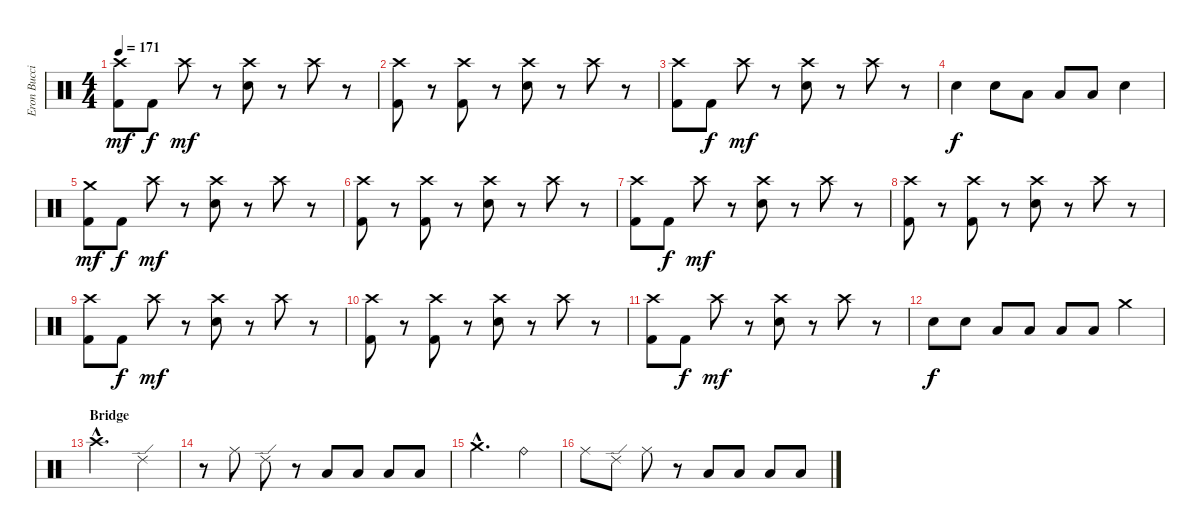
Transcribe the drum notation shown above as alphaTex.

\track ("Eron Bucciarelli (Drums)" "Eron Bucci") {instrument percussion}
\staff {score}
\articulation defaults
\ts (4 4)
\tempo 171
\clef neutral
\ks c
("Crash high (hit)" "Kick (hit) 2").8{dy mf} "Kick (hit) 2".8{dy f} "Crash high (hit)".8{dy mf} r.8 ("Crash high (hit)" "Snare (hit) 2").8 r.8 "Crash high (hit)".8 r.8 |
("Crash high (hit)" "Kick (hit) 2").8 r.8 ("Crash high (hit)" "Kick (hit) 2").8 r.8 ("Crash high (hit)" "Snare (hit) 2").8 r.8 "Crash high (hit)".8 r.8 |
("Crash high (hit)" "Kick (hit) 2").8 "Kick (hit) 2".8{dy f} "Crash high (hit)".8{dy mf} r.8 ("Crash high (hit)" "Snare (hit) 2").8 r.8 "Crash high (hit)".8 r.8 |
"Snare (hit) 2".4{dy f} "Snare (hit) 2".8 "Low Tom (hit)".8 "Low Tom (hit)".8 "Low Floor Tom (hit)".8 "Snare (hit) 2".4 |
("Crash medium (hit)" "Kick (hit) 2").8{dy mf} "Kick (hit) 2".8{dy f} "Crash high (hit)".8{dy mf} r.8 ("Crash high (hit)" "Snare (hit) 2").8 r.8 "Crash high (hit)".8 r.8 |
("Crash high (hit)" "Kick (hit) 2").8 r.8 ("Crash high (hit)" "Kick (hit) 2").8 r.8 ("Crash high (hit)" "Snare (hit) 2").8 r.8 "Crash high (hit)".8 r.8 |
("Crash high (hit)" "Kick (hit) 2").8 "Kick (hit) 2".8{dy f} "Crash high (hit)".8{dy mf} r.8 ("Crash high (hit)" "Snare (hit) 2").8 r.8 "Crash high (hit)".8 r.8 |
("Crash high (hit)" "Kick (hit) 2").8 r.8 ("Crash high (hit)" "Kick (hit) 2").8 r.8 ("Crash high (hit)" "Snare (hit) 2").8 r.8 "Crash high (hit)".8 r.8 |
("Crash high (hit)" "Kick (hit) 2").8 "Kick (hit) 2".8{dy f} "Crash high (hit)".8{dy mf} r.8 ("Crash high (hit)" "Snare (hit) 2").8 r.8 "Crash high (hit)".8 r.8 |
("Crash high (hit)" "Kick (hit) 2").8 r.8 ("Crash high (hit)" "Kick (hit) 2").8 r.8 ("Crash high (hit)" "Snare (hit) 2").8 r.8 "Crash high (hit)".8 r.8 |
("Crash high (hit)" "Kick (hit) 2").8 "Kick (hit) 2".8{dy f} "Crash high (hit)".8{dy mf} r.8 ("Crash high (hit)" "Snare (hit) 2").8 r.8 "Crash high (hit)".8 r.8 |
"Snare (hit) 2".8{dy f} "Snare (hit) 2".8 "Low Tom (hit)".8 "Low Tom (hit)".8 "Low Floor Tom (hit)".8 "Low Floor Tom (hit)".8 "Crash medium (hit)".4 |
\section ("" "Bridge")
"Crash high (hit)"{hac}.2{d} "Ride (edge) 2".4 |
r.8 "Ride (middle)".8 "Ride (edge) 2".8 r.8 "Low Tom (hit)".8 "Low Tom (hit)".8 "Low Floor Tom (hit)".8 "Low Floor Tom (hit)".8 |
"Crash medium (hit)"{hac}.2{d} "Ride (bell)".4 |
"Ride (middle)".8 "Ride (edge) 2".8 "Ride (middle)".8 r.8 "Low Tom (hit)".8 "Low Tom (hit)".8 "Low Floor Tom (hit)".8 "Low Floor Tom (hit)".8
